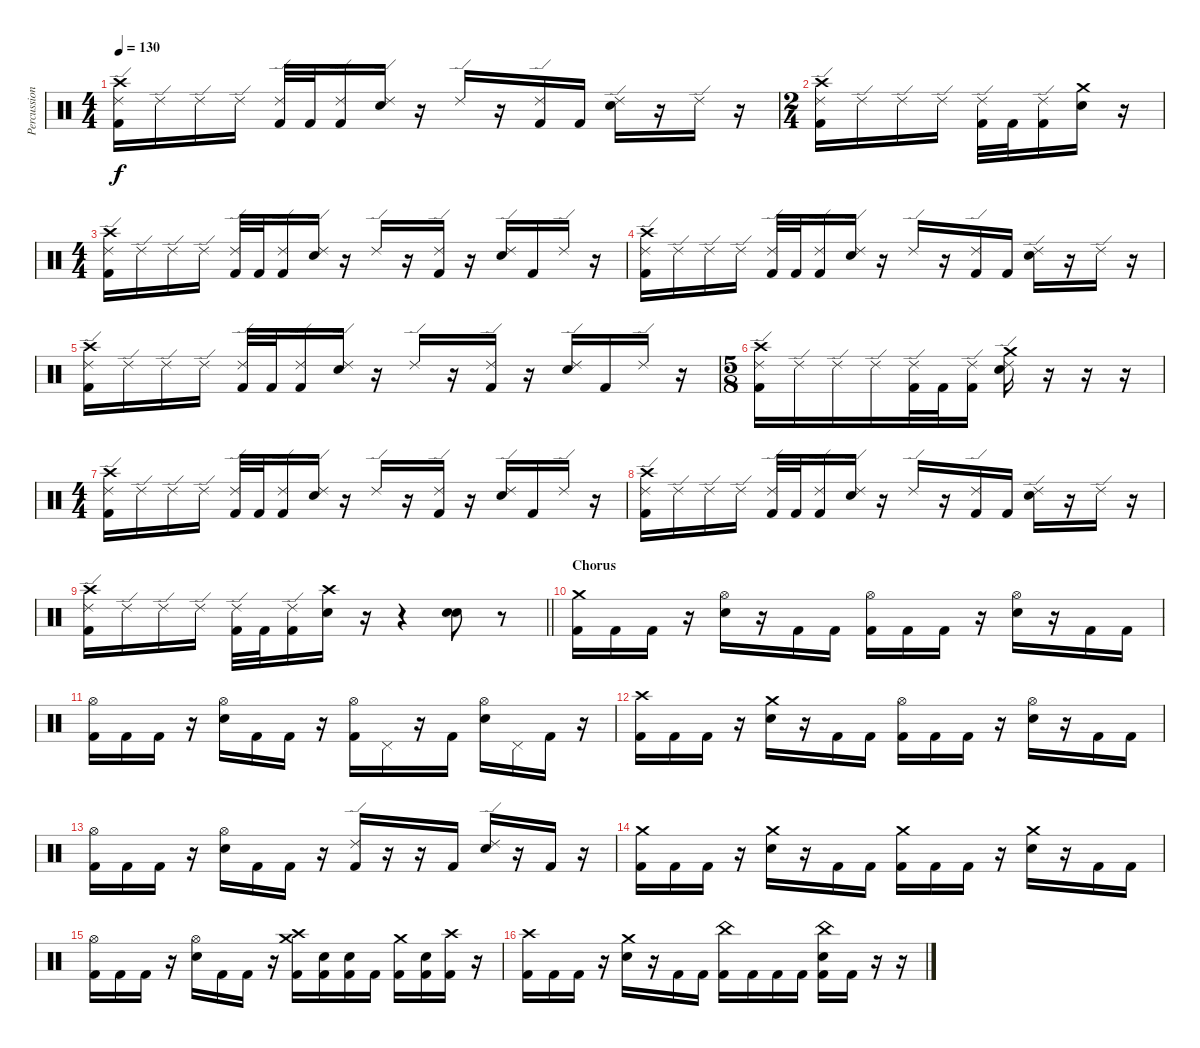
\track ("Percussion" "Percussion") {instrument percussion}
\staff {score}
\articulation defaults
\ts (4 4)
\tempo 130
\clef neutral
\ks c
("Crash high (hit)" "Ride (edge) 2" "Kick (hit) 2").16{dy f} "Ride (edge) 2".16 "Ride (edge) 2".16 "Ride (edge) 2".16 ("Ride (edge) 2" "Kick (hit) 2").32 "Kick (hit) 2".32 ("Ride (edge) 2" "Kick (hit) 2").16 ("Ride (edge) 2" "Electric Snare (hit)").16 r.16 "Ride (edge) 2".16 r.16 ("Ride (edge) 2" "Kick (hit) 2").16 "Kick (hit) 2".16 ("Ride (edge) 2" "Electric Snare (hit)").16 r.16 "Ride (edge) 2".16 r.16 |
\ts (2 4)
("Crash high (hit)" "Ride (edge) 2" "Kick (hit) 2").16 "Ride (edge) 2".16 "Ride (edge) 2".16 "Ride (edge) 2".16 ("Ride (edge) 2" "Kick (hit) 2").32 "Kick (hit) 2".32 ("Ride (edge) 2" "Kick (hit) 2").16 ("Crash medium (hit)" "Electric Snare (hit)").16 r.16 |
\ts (4 4)
("Crash high (hit)" "Ride (edge) 2" "Kick (hit) 2").16 "Ride (edge) 2".16 "Ride (edge) 2".16 "Ride (edge) 2".16 ("Ride (edge) 2" "Kick (hit) 2").32 "Kick (hit) 2".32 ("Ride (edge) 2" "Kick (hit) 2").16 ("Ride (edge) 2" "Electric Snare (hit)").16 r.16 "Ride (edge) 2".16 r.16 ("Ride (edge) 2" "Kick (hit) 2").16 r.16 ("Ride (edge) 2" "Electric Snare (hit)").16 "Kick (hit) 2".16 "Ride (edge) 2".16 r.16 |
("Crash high (hit)" "Ride (edge) 2" "Kick (hit) 2").16 "Ride (edge) 2".16 "Ride (edge) 2".16 "Ride (edge) 2".16 ("Ride (edge) 2" "Kick (hit) 2").32 "Kick (hit) 2".32 ("Ride (edge) 2" "Kick (hit) 2").16 ("Ride (edge) 2" "Electric Snare (hit)").16 r.16 "Ride (edge) 2".16 r.16 ("Ride (edge) 2" "Kick (hit) 2").16 "Kick (hit) 2".16 ("Ride (edge) 2" "Electric Snare (hit)").16 r.16 "Ride (edge) 2".16 r.16 |
("Crash high (hit)" "Ride (edge) 2" "Kick (hit) 2").16 "Ride (edge) 2".16 "Ride (edge) 2".16 "Ride (edge) 2".16 ("Ride (edge) 2" "Kick (hit) 2").32 "Kick (hit) 2".32 ("Ride (edge) 2" "Kick (hit) 2").16 ("Ride (edge) 2" "Electric Snare (hit)").16 r.16 "Ride (edge) 2".16 r.16 ("Ride (edge) 2" "Kick (hit) 2").16 r.16 ("Ride (edge) 2" "Electric Snare (hit)").16 "Kick (hit) 2".16 "Ride (edge) 2".16 r.16 |
\ts (5 8)
("Crash high (hit)" "Ride (edge) 2" "Kick (hit) 2").16 "Ride (edge) 2".16 "Ride (edge) 2".16 "Ride (edge) 2".16 ("Ride (edge) 2" "Kick (hit) 2").32 "Kick (hit) 2".32 ("Ride (edge) 2" "Kick (hit) 2").16 ("Crash medium (hit)" "Ride (edge) 2" "Electric Snare (hit)").16 r.16 r.16 r.16 |
\ts (4 4)
("Crash high (hit)" "Ride (edge) 2" "Kick (hit) 2").16 "Ride (edge) 2".16 "Ride (edge) 2".16 "Ride (edge) 2".16 ("Ride (edge) 2" "Kick (hit) 2").32 "Kick (hit) 2".32 ("Ride (edge) 2" "Kick (hit) 2").16 ("Ride (edge) 2" "Electric Snare (hit)").16 r.16 "Ride (edge) 2".16 r.16 ("Ride (edge) 2" "Kick (hit) 2").16 r.16 ("Ride (edge) 2" "Electric Snare (hit)").16 "Kick (hit) 2".16 "Ride (edge) 2".16 r.16 |
("Crash high (hit)" "Ride (edge) 2" "Kick (hit) 2").16 "Ride (edge) 2".16 "Ride (edge) 2".16 "Ride (edge) 2".16 ("Ride (edge) 2" "Kick (hit) 2").32 "Kick (hit) 2".32 ("Ride (edge) 2" "Kick (hit) 2").16 ("Ride (edge) 2" "Electric Snare (hit)").16 r.16 "Ride (edge) 2".16 r.16 ("Ride (edge) 2" "Kick (hit) 2").16 "Kick (hit) 2".16 ("Ride (edge) 2" "Electric Snare (hit)").16 r.16 "Ride (edge) 2".16 r.16 |
\barLineRight lightlight
("Crash high (hit)" "Ride (edge) 2" "Kick (hit) 2").16 "Ride (edge) 2".16 "Ride (edge) 2".16 "Ride (edge) 2".16 ("Ride (edge) 2" "Kick (hit) 2").32 "Kick (hit) 2".32 ("Ride (edge) 2" "Kick (hit) 2").16 ("Crash high (hit)" "Electric Snare (hit)").16 r.16 r.4 ("Electric Snare (hit)" "Electric Snare (hit)").8{bd 480} r.8 |
\section ("" "Chorus")
("Crash medium (hit)" "Kick (hit) 2").16 "Kick (hit) 2".16 "Kick (hit) 2".16 r.16 ("Hi-Hat (open)" "Electric Snare (hit)").16 r.16 "Kick (hit) 2".16 "Kick (hit) 2".16 ("Hi-Hat (open)" "Kick (hit) 2").16 "Kick (hit) 2".16 "Kick (hit) 2".16 r.16 ("Hi-Hat (open)" "Electric Snare (hit)").16 r.16 "Kick (hit) 2".16 "Kick (hit) 2".16 |
("Hi-Hat (open)" "Kick (hit) 2").16 "Kick (hit) 2".16 "Kick (hit) 2".16 r.16 ("Hi-Hat (open)" "Electric Snare (hit)").16 "Kick (hit) 2".16 "Kick (hit) 2".16 r.16 ("Hi-Hat (open)" "Kick (hit) 2").16 "Pedal Hi-Hat (hit)".16 r.16 "Kick (hit) 2".16 ("Hi-Hat (open)" "Electric Snare (hit)").16 "Pedal Hi-Hat (hit)".16 "Kick (hit) 2".16 r.16 |
("Crash high (hit)" "Kick (hit) 2").16 "Kick (hit) 2".16 "Kick (hit) 2".16 r.16 ("Crash medium (hit)" "Electric Snare (hit)").16 r.16 "Kick (hit) 2".16 "Kick (hit) 2".16 ("Hi-Hat (open)" "Kick (hit) 2").16 "Kick (hit) 2".16 "Kick (hit) 2".16 r.16 ("Hi-Hat (open)" "Electric Snare (hit)").16 r.16 "Kick (hit) 2".16 "Kick (hit) 2".16 |
("Hi-Hat (open)" "Kick (hit) 2").16 "Kick (hit) 2".16 "Kick (hit) 2".16 r.16 ("Hi-Hat (open)" "Electric Snare (hit)").16 "Kick (hit) 2".16 "Kick (hit) 2".16 r.16 ("Ride (edge) 2" "Kick (hit) 2").16 r.16 r.16 "Kick (hit) 2".16 ("Ride (edge) 2" "Electric Snare (hit)").16 r.16 "Kick (hit) 2".16 r.16 |
("Crash medium (hit)" "Kick (hit) 2").16 "Kick (hit) 2".16 "Kick (hit) 2".16 r.16 ("Crash medium (hit)" "Electric Snare (hit)").16 r.16 "Kick (hit) 2".16 "Kick (hit) 2".16 ("Crash medium (hit)" "Kick (hit) 2").16 "Kick (hit) 2".16 "Kick (hit) 2".16 r.16 ("Crash medium (hit)" "Electric Snare (hit)").16 r.16 "Kick (hit) 2".16 "Kick (hit) 2".16 |
("Hi-Hat (open)" "Kick (hit) 2").16 "Kick (hit) 2".16 "Kick (hit) 2".16 r.16 ("Hi-Hat (open)" "Electric Snare (hit)").16 "Kick (hit) 2".16 "Kick (hit) 2".16 r.16 ("Crash high (hit)" "Crash medium (hit)" "Kick (hit) 2").16 ("Electric Snare (hit)" "Kick (hit) 2").16 ("Electric Snare (hit)" "Kick (hit) 2").16 "Kick (hit) 2".16 ("Crash medium (hit)" "Kick (hit) 2").16 ("Electric Snare (hit)" "Kick (hit) 2").16 ("Crash high (hit)" "Kick (hit) 2").16 r.16 |
("Crash high (hit)" "Kick (hit) 2").16 "Kick (hit) 2".16 "Kick (hit) 2".16 r.16 ("Crash medium (hit)" "Electric Snare (hit)").16 r.16 "Kick (hit) 2".16 "Kick (hit) 2".16 ("China (hit)" "Kick (hit) 2").16 "Kick (hit) 2".16 "Kick (hit) 2".16 "Kick (hit) 2".16 ("China (hit)" "Electric Snare (hit)" "Kick (hit) 2").16 "Kick (hit) 2".16 r.16 r.16
